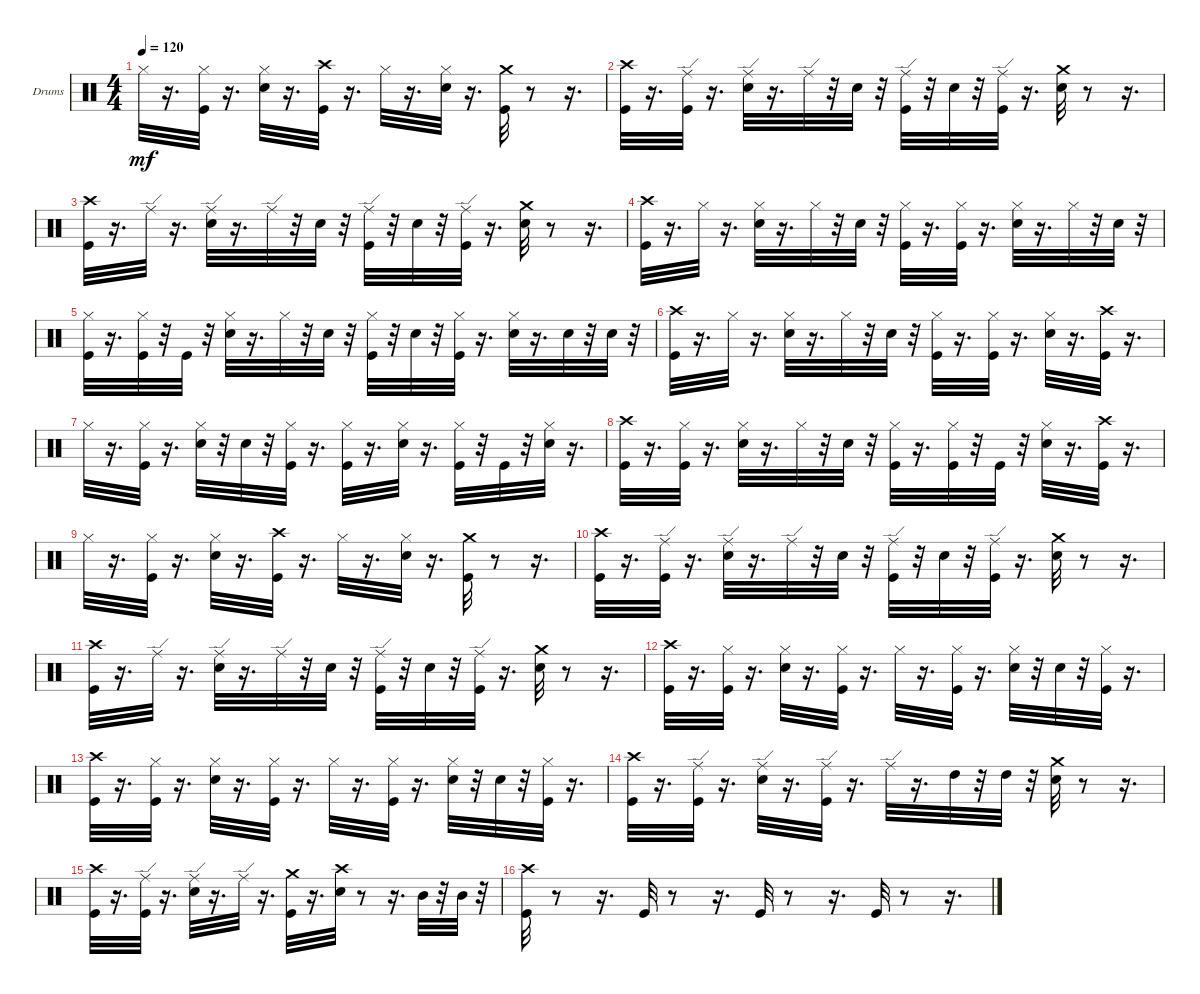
\bracketExtendMode groupsimilarinstruments
\firstSystemTrackNameOrientation horizontal
\otherSystemsTrackNameOrientation horizontal
\track ("" "Drums") {instrument percussion}
\staff {score}
\articulation defaults
\ts (4 4)
\tempo 120
\clef neutral
\ks c "Hi-Hat (closed)".32{dy mf}
r.16{d} ("Kick (hit)" "Hi-Hat (closed)").32 r.16{d} ("Snare (hit) 2" "Hi-Hat (closed)").32 r.16{d} ("Crash high (hit)" "Kick (hit)").32 r.16{d} "Hi-Hat (closed)".32 r.16{d} ("Hi-Hat (closed)" "Snare (hit) 2").32 r.16{d} ("Crash medium (hit)" "Kick (hit)").32 r.8 r.16{d} |
("Crash high (hit)" "Kick (hit)").32 r.16{d} ("Kick (hit)" "Ride (edge)").32 r.16{d} ("Snare (hit) 2" "Ride (edge)").32 r.16{d} "Ride (edge)".32 r.32 "Snare (hit) 2".32 r.32 ("Kick (hit)" "Ride (edge)").32 r.32 "Snare (hit) 2".32 r.32 ("Kick (hit)" "Ride (edge)").32 r.16{d} ("Crash medium (hit)" "Snare (hit) 2").32 r.8 r.16{d} |
("Crash high (hit)" "Kick (hit)").32 r.16{d} "Ride (edge)".32 r.16{d} ("Snare (hit) 2" "Ride (edge)").32 r.16{d} "Ride (edge)".32 r.32 "Snare (hit) 2".32 r.32 ("Kick (hit)" "Ride (edge)").32 r.32 "Snare (hit) 2".32 r.32 ("Kick (hit)" "Ride (edge)").32 r.16{d} ("Crash medium (hit)" "Snare (hit) 2").32 r.8 r.16{d} |
("Crash high (hit)" "Kick (hit)").32 r.16{d} "Hi-Hat (closed)".32 r.16{d} ("Snare (hit) 2" "Hi-Hat (closed)").32 r.16{d} "Hi-Hat (closed)".32 r.32 "Snare (hit) 2".32 r.32 ("Kick (hit)" "Hi-Hat (closed)").32 r.16{d} ("Kick (hit)" "Hi-Hat (closed)").32 r.16{d} ("Snare (hit) 2" "Hi-Hat (closed)").32 r.16{d} "Hi-Hat (closed)".32 r.32 "Snare (hit) 2".32 r.32 |
("Hi-Hat (closed)" "Kick (hit)").32 r.16{d} ("Hi-Hat (closed)" "Kick (hit)").32 r.32 "Kick (hit)".32 r.32 ("Hi-Hat (closed)" "Snare (hit) 2").32 r.16{d} "Hi-Hat (closed)".32 r.32 "Snare (hit) 2".32 r.32 ("Hi-Hat (closed)" "Kick (hit)").32 r.32 "Snare (hit) 2".32 r.32 ("Hi-Hat (closed)" "Kick (hit)").32 r.16{d} ("Snare (hit) 2" "Hi-Hat (closed)").32 r.16{d} "Snare (hit) 2".32 r.32 "Snare (hit) 2".32 r.32 |
("Crash high (hit)" "Kick (hit)").32 r.16{d} "Hi-Hat (closed)".32 r.16{d} ("Snare (hit) 2" "Hi-Hat (closed)").32 r.16{d} "Hi-Hat (closed)".32 r.32 "Snare (hit) 2".32 r.32 ("Kick (hit)" "Hi-Hat (closed)").32 r.16{d} ("Kick (hit)" "Hi-Hat (closed)").32 r.16{d} ("Snare (hit) 2" "Hi-Hat (closed)").32 r.16{d} ("Crash high (hit)" "Kick (hit)").32 r.16{d} |
"Hi-Hat (closed)".32 r.16{d} ("Hi-Hat (closed)" "Kick (hit)").32 r.16{d} ("Snare (hit) 2" "Hi-Hat (closed)").32 r.32 "Snare (hit) 2".32 r.32 ("Kick (hit)" "Hi-Hat (closed)").32 r.16{d} ("Kick (hit)" "Hi-Hat (closed)").32 r.16{d} ("Snare (hit) 2" "Hi-Hat (closed)").32 r.16{d} ("Kick (hit)" "Hi-Hat (closed)").32 r.32 "Kick (hit)".32 r.32 ("Hi-Hat (closed)" "Snare (hit) 2").32 r.16{d} |
("Crash high (hit)" "Kick (hit)").32 r.16{d} ("Kick (hit)" "Hi-Hat (closed)").32 r.16{d} ("Snare (hit) 2" "Hi-Hat (closed)").32 r.16{d} "Hi-Hat (closed)".32 r.32 "Snare (hit) 2".32 r.32 ("Kick (hit)" "Hi-Hat (closed)").32 r.16{d} ("Kick (hit)" "Hi-Hat (closed)").32 r.32 "Kick (hit)".32 r.32 ("Snare (hit) 2" "Hi-Hat (closed)").32 r.16{d} ("Crash high (hit)" "Kick (hit)").32 r.16{d} |
"Hi-Hat (closed)".32 r.16{d} ("Kick (hit)" "Hi-Hat (closed)").32 r.16{d} ("Snare (hit) 2" "Hi-Hat (closed)").32 r.16{d} ("Crash high (hit)" "Kick (hit)").32 r.16{d} "Hi-Hat (closed)".32 r.16{d} ("Hi-Hat (closed)" "Snare (hit) 2").32 r.16{d} ("Crash medium (hit)" "Kick (hit)").32 r.8 r.16{d} |
("Crash high (hit)" "Kick (hit)").32 r.16{d} ("Kick (hit)" "Ride (edge)").32 r.16{d} ("Snare (hit) 2" "Ride (edge)").32 r.16{d} "Ride (edge)".32 r.32 "Snare (hit) 2".32 r.32 ("Kick (hit)" "Ride (edge)").32 r.32 "Snare (hit) 2".32 r.32 ("Kick (hit)" "Ride (edge)").32 r.16{d} ("Crash medium (hit)" "Snare (hit) 2").32 r.8 r.16{d} |
("Crash high (hit)" "Kick (hit)").32 r.16{d} "Ride (edge)".32 r.16{d} ("Snare (hit) 2" "Ride (edge)").32 r.16{d} "Ride (edge)".32 r.32 "Snare (hit) 2".32 r.32 ("Kick (hit)" "Ride (edge)").32 r.32 "Snare (hit) 2".32 r.32 ("Kick (hit)" "Ride (edge)").32 r.16{d} ("Crash medium (hit)" "Snare (hit) 2").32 r.8 r.16{d} |
("Crash high (hit)" "Kick (hit)").32 r.16{d} ("Hi-Hat (closed)" "Kick (hit)").32 r.16{d} ("Hi-Hat (closed)" "Snare (hit) 2").32 r.16{d} ("Hi-Hat (closed)" "Kick (hit)").32 r.16{d} "Hi-Hat (closed)".32 r.16{d} ("Hi-Hat (closed)" "Kick (hit)").32 r.16{d} ("Hi-Hat (closed)" "Snare (hit) 2").32 r.32 "Snare (hit) 2".32 r.32 ("Hi-Hat (closed)" "Kick (hit)").32 r.16{d} |
("Crash high (hit)" "Kick (hit)").32 r.16{d} ("Hi-Hat (closed)" "Kick (hit)").32 r.16{d} ("Hi-Hat (closed)" "Snare (hit) 2").32 r.16{d} ("Hi-Hat (closed)" "Kick (hit)").32 r.16{d} "Hi-Hat (closed)".32 r.16{d} ("Hi-Hat (closed)" "Kick (hit)").32 r.16{d} ("Hi-Hat (closed)" "Snare (hit) 2").32 r.32 "Snare (hit) 2".32 r.32 ("Hi-Hat (closed)" "Kick (hit)").32 r.16{d} |
("Crash high (hit)" "Kick (hit)").32 r.16{d} ("Kick (hit)" "Ride (edge)").32 r.16{d} ("Snare (hit) 2" "Ride (edge)").32 r.16{d} ("Kick (hit)" "Ride (edge)").32 r.16{d} "Ride (edge)".32 r.16{d} "High Tom (hit)".32 r.32 "High Tom (hit)".32 r.32 ("Crash medium (hit)" "Snare (hit) 2").32 r.8 r.16{d} |
("Crash high (hit)" "Kick (hit)").32 r.16{d} ("Kick (hit)" "Ride (edge)").32 r.16{d} ("Snare (hit) 2" "Ride (edge)").32 r.16{d} "Ride (edge)".32 r.16{d} ("Crash medium (hit)" "Kick (hit)").32 r.16{d} ("Snare (hit) 2" "Crash high (hit)").32 r.8 r.16{d} "Mid Tom (hit)".32 r.32 "Mid Tom (hit)".32 r.32 |
("Crash high (hit)" "Kick (hit)").32 r.8 r.16{d} "Kick (hit)".32 r.8 r.16{d} "Kick (hit)".32 r.8 r.16{d} "Kick (hit)".32 r.8 r.16{d}
